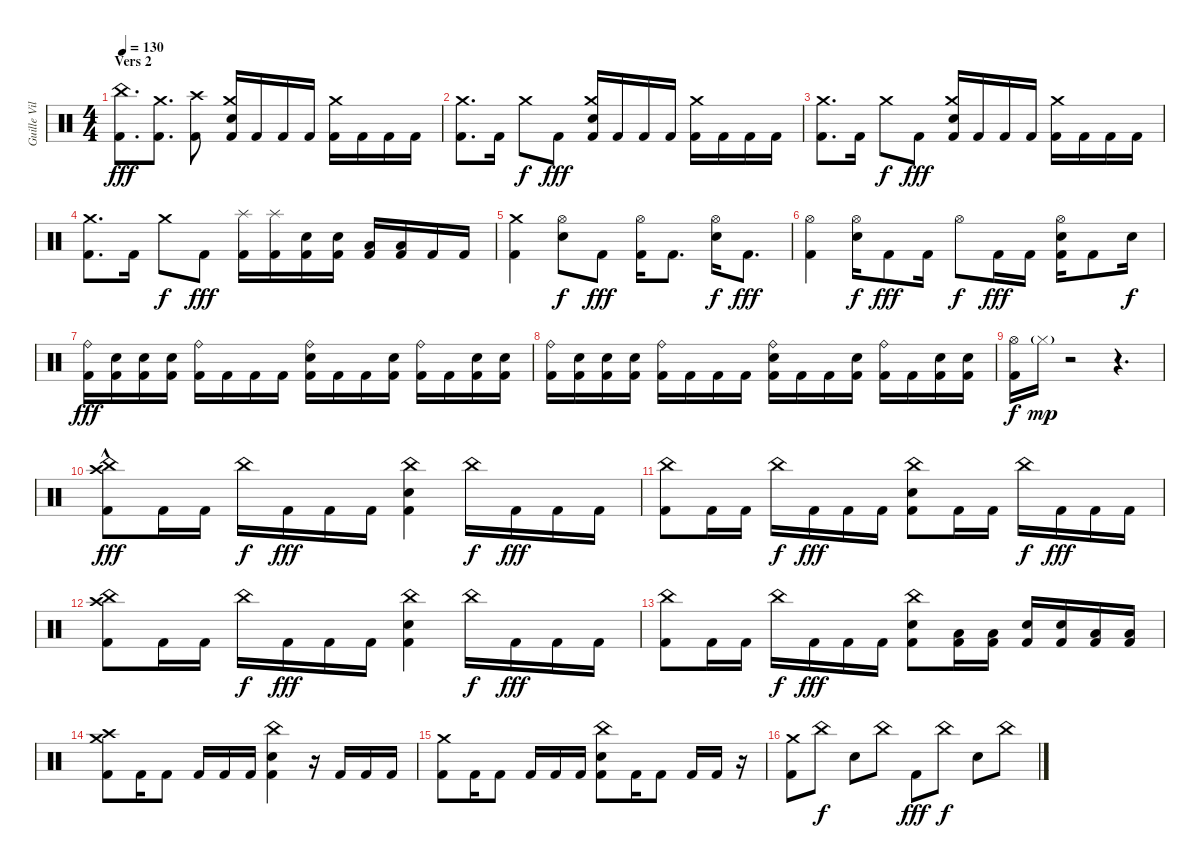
\track ("Guille Vila" "Guille Vil") {instrument percussion}
\staff {score}
\articulation defaults
\ts (4 4)
\section ("" "Vers 2")
\tempo 130
\clef neutral
\ks c
("China (hit)" "Kick (hit) 2").8{d dy fff} ("Crash medium (hit)" "Kick (hit) 2").8{d} ("Crash high (hit)" "Kick (hit) 2").8 ("Crash medium (hit)" "Snare (hit) 2" "Kick (hit) 2").16 "Kick (hit) 2".16 "Kick (hit) 2".16 "Kick (hit) 2".16 ("Crash medium (hit)" "Kick (hit) 2").16 "Kick (hit) 2".16 "Kick (hit) 2".16 "Kick (hit) 2".16 |
("Crash medium (hit)" "Kick (hit) 2").8{d} "Kick (hit) 2".16 "Crash medium (hit)".8{dy f} "Kick (hit) 2".8{dy fff} ("Crash medium (hit)" "Snare (hit) 2" "Kick (hit) 2").16 "Kick (hit) 2".16 "Kick (hit) 2".16 "Kick (hit) 2".16 ("Crash medium (hit)" "Kick (hit) 2").16 "Kick (hit) 2".16 "Kick (hit) 2".16 "Kick (hit) 2".16 |
("Crash medium (hit)" "Kick (hit) 2").8{d} "Kick (hit) 2".16 "Crash medium (hit)".8{dy f} "Kick (hit) 2".8{dy fff} ("Crash medium (hit)" "Snare (hit) 2" "Kick (hit) 2").16 "Kick (hit) 2".16 "Kick (hit) 2".16 "Kick (hit) 2".16 ("Crash medium (hit)" "Kick (hit) 2").16 "Kick (hit) 2".16 "Kick (hit) 2".16 "Kick (hit) 2".16 |
("Crash medium (hit)" "Kick (hit) 2").8{d} "Kick (hit) 2".16 "Crash medium (hit)".8{dy f} "Kick (hit) 2".8{dy fff} ("Splash (hit)" "Kick (hit) 2").16 ("Splash (hit)" "Kick (hit) 2").16 ("Snare (hit) 2" "Kick (hit) 2").16 ("Snare (hit) 2" "Kick (hit) 2").16 ("Low Tom (hit)" "Kick (hit) 2").16 ("Low Tom (hit)" "Kick (hit) 2").16 "Kick (hit) 2".16 "Kick (hit) 2".16 |
("Crash medium (hit)" "Kick (hit) 2").4 ("Hi-Hat (open)" "Snare (hit) 2").8{dy f} "Kick (hit) 2".8{dy fff} ("Hi-Hat (open)" "Kick (hit) 2").16 "Kick (hit) 2".8{d} ("Hi-Hat (open)" "Snare (hit) 2").16{dy f} "Kick (hit) 2".8{d dy fff} |
("Hi-Hat (open)" "Kick (hit) 2").4 ("Hi-Hat (open)" "Snare (hit) 2").16{dy f} "Kick (hit) 2".8{dy fff} "Kick (hit) 2".16 "Hi-Hat (open)".8{dy f} "Kick (hit) 2".16{dy fff} "Kick (hit) 2".16 ("Hi-Hat (open)" "Snare (hit) 2" "Kick (hit) 2").16 "Kick (hit) 2".8 "Snare (hit) 2".16{dy f} |
("Ride (bell)" "Kick (hit) 2").16{dy fff} ("Snare (hit) 2" "Kick (hit) 2").16 ("Snare (hit) 2" "Kick (hit) 2").16 ("Snare (hit) 2" "Kick (hit) 2").16 ("Ride (bell)" "Kick (hit) 2").16 "Kick (hit) 2".16 "Kick (hit) 2".16 "Kick (hit) 2".16 ("Ride (bell)" "Snare (hit) 2" "Kick (hit) 2").16 "Kick (hit) 2".16 "Kick (hit) 2".16 ("Snare (hit) 2" "Kick (hit) 2").16 ("Ride (bell)" "Kick (hit) 2").16 "Kick (hit) 2".16 ("Snare (hit) 2" "Kick (hit) 2").16 ("Snare (hit) 2" "Kick (hit) 2").16 |
("Ride (bell)" "Kick (hit) 2").16 ("Snare (hit) 2" "Kick (hit) 2").16 ("Snare (hit) 2" "Kick (hit) 2").16 ("Snare (hit) 2" "Kick (hit) 2").16 ("Ride (bell)" "Kick (hit) 2").16 "Kick (hit) 2".16 "Kick (hit) 2".16 "Kick (hit) 2".16 ("Ride (bell)" "Snare (hit) 2" "Kick (hit) 2").16 "Kick (hit) 2".16 "Kick (hit) 2".16 ("Snare (hit) 2" "Kick (hit) 2").16 ("Ride (bell)" "Kick (hit) 2").16 "Kick (hit) 2".16 ("Snare (hit) 2" "Kick (hit) 2").16 ("Snare (hit) 2" "Kick (hit) 2").16 |
("Hi-Hat (open)" "Kick (hit) 2").16{dy f} "Hi-Hat (closed)"{g}.16{dy mp} r.2 r.4{d} |
("Crash high (hit)" "China (hit)" "Kick (hit) 2"{hac}).8{dy fff} "Kick (hit) 2".16 "Kick (hit) 2".16 "China (hit)".16{dy f} "Kick (hit) 2".16{dy fff} "Kick (hit) 2".16 "Kick (hit) 2".16 ("China (hit)" "Snare (hit) 2" "Kick (hit) 2").4 "China (hit)".16{dy f} "Kick (hit) 2".16{dy fff} "Kick (hit) 2".16 "Kick (hit) 2".16 |
("China (hit)" "Kick (hit) 2").8 "Kick (hit) 2".16 "Kick (hit) 2".16 "China (hit)".16{dy f} "Kick (hit) 2".16{dy fff} "Kick (hit) 2".16 "Kick (hit) 2".16 ("China (hit)" "Snare (hit) 2" "Kick (hit) 2").8 "Kick (hit) 2".16 "Kick (hit) 2".16 "China (hit)".16{dy f} "Kick (hit) 2".16{dy fff} "Kick (hit) 2".16 "Kick (hit) 2".16 |
("Crash high (hit)" "China (hit)" "Kick (hit) 2").8 "Kick (hit) 2".16 "Kick (hit) 2".16 "China (hit)".16{dy f} "Kick (hit) 2".16{dy fff} "Kick (hit) 2".16 "Kick (hit) 2".16 ("China (hit)" "Snare (hit) 2" "Kick (hit) 2").4 "China (hit)".16{dy f} "Kick (hit) 2".16{dy fff} "Kick (hit) 2".16 "Kick (hit) 2".16 |
("China (hit)" "Kick (hit) 2").8 "Kick (hit) 2".16 "Kick (hit) 2".16 "China (hit)".16{dy f} "Kick (hit) 2".16{dy fff} "Kick (hit) 2".16 "Kick (hit) 2".16 ("China (hit)" "Snare (hit) 2" "Kick (hit) 2").8 ("Low Tom (hit)" "Kick (hit) 2").16 ("Low Tom (hit)" "Kick (hit) 2").16 ("Snare (hit) 2" "Kick (hit) 2").16 ("Snare (hit) 2" "Kick (hit) 2").16 ("Low Floor Tom (hit)" "Kick (hit) 2").16 ("Low Floor Tom (hit)" "Kick (hit) 2").16 |
("Crash high (hit)" "Crash medium (hit)" "Kick (hit) 2").8 "Kick (hit) 2".16 "Kick (hit) 2".8 "Kick (hit) 2".16 "Kick (hit) 2".16 "Kick (hit) 2".16 ("China (hit)" "Snare (hit) 2" "Kick (hit) 2").4 r.16 "Kick (hit) 2".16 "Kick (hit) 2".16 "Kick (hit) 2".16 |
("Crash medium (hit)" "Kick (hit) 2").8 "Kick (hit) 2".16 "Kick (hit) 2".8 "Kick (hit) 2".16 "Kick (hit) 2".16 "Kick (hit) 2".16 ("China (hit)" "Snare (hit) 2" "Kick (hit) 2").8 "Kick (hit) 2".16 "Kick (hit) 2".8 "Kick (hit) 2".16 "Kick (hit) 2".16 r.16 |
("Crash medium (hit)" "Kick (hit) 2").8 "China (hit)".8{dy f} "Snare (hit) 2".8 "China (hit)".8 "Kick (hit) 2".8{dy fff} "China (hit)".8{dy f} "Snare (hit) 2".8 "China (hit)".8
